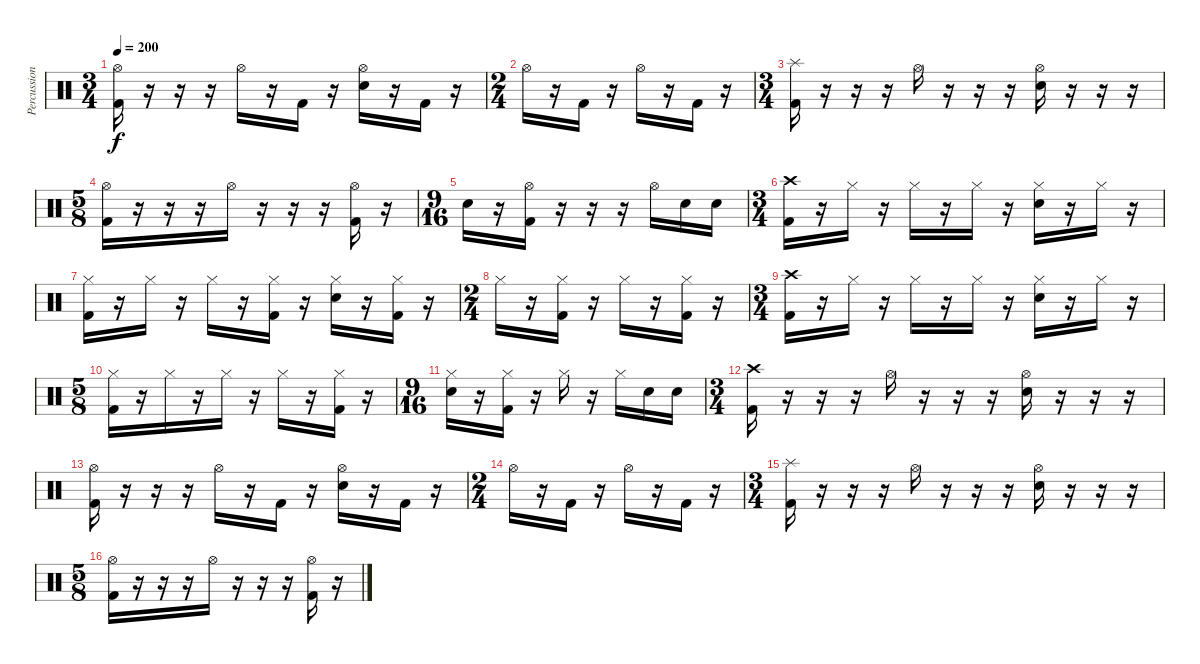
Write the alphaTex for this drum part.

\track ("Percussion" "Percussion") {instrument percussion}
\staff {score}
\articulation defaults
\ts (3 4)
\tempo 200
\clef neutral
\ks c
("Hi-Hat (open)" "Kick (hit) 2").16{dy f} r.16 r.16 r.16 "Hi-Hat (open)".16 r.16 "Kick (hit) 2".16 r.16 ("Hi-Hat (open)" "Electric Snare (hit)").16 r.16 "Kick (hit) 2".16 r.16 |
\ts (2 4)
"Hi-Hat (open)".16 r.16 "Kick (hit) 2".16 r.16 "Hi-Hat (open)".16 r.16 "Kick (hit) 2".16 r.16 |
\ts (3 4)
("Splash (hit)" "Kick (hit) 2").16 r.16 r.16 r.16 "Hi-Hat (open)".16 r.16 r.16 r.16 ("Hi-Hat (open)" "Electric Snare (hit)").16 r.16 r.16 r.16 |
\ts (5 8)
("Hi-Hat (open)" "Kick (hit) 2").16 r.16 r.16 r.16 "Hi-Hat (open)".16 r.16 r.16 r.16 ("Hi-Hat (open)" "Kick (hit) 2").16 r.16 |
\ts (9 16)
"Electric Snare (hit)".16 r.16 ("Hi-Hat (open)" "Kick (hit) 2").16 r.16 r.16 r.16 "Hi-Hat (open)".16 "Electric Snare (hit)".16 "Electric Snare (hit)".16 |
\ts (3 4)
("Crash high (hit)" "Kick (hit) 2").16 r.16 "Hi-Hat (closed)".16 r.16 "Hi-Hat (closed)".16 r.16 "Hi-Hat (closed)".16 r.16 ("Hi-Hat (closed)" "Electric Snare (hit)").16 r.16 "Hi-Hat (closed)".16 r.16 |
("Hi-Hat (closed)" "Kick (hit) 2").16 r.16 "Hi-Hat (closed)".16 r.16 "Hi-Hat (closed)".16 r.16 ("Hi-Hat (closed)" "Kick (hit) 2").16 r.16 ("Hi-Hat (closed)" "Electric Snare (hit)").16 r.16 ("Hi-Hat (closed)" "Kick (hit) 2").16 r.16 |
\ts (2 4)
"Hi-Hat (closed)".16 r.16 ("Hi-Hat (closed)" "Kick (hit) 2").16 r.16 "Hi-Hat (closed)".16 r.16 ("Hi-Hat (closed)" "Kick (hit) 2").16 r.16 |
\ts (3 4)
("Crash high (hit)" "Kick (hit) 2").16 r.16 "Hi-Hat (closed)".16 r.16 "Hi-Hat (closed)".16 r.16 "Hi-Hat (closed)".16 r.16 ("Hi-Hat (closed)" "Electric Snare (hit)").16 r.16 "Hi-Hat (closed)".16 r.16 |
\ts (5 8)
("Hi-Hat (closed)" "Kick (hit) 2").16 r.16 "Hi-Hat (closed)".16 r.16 "Hi-Hat (closed)".16 r.16 "Hi-Hat (closed)".16 r.16 ("Hi-Hat (closed)" "Kick (hit) 2").16 r.16 |
\ts (9 16)
("Hi-Hat (closed)" "Electric Snare (hit)").16 r.16 ("Hi-Hat (closed)" "Kick (hit) 2").16 r.16 "Hi-Hat (closed)".16 r.16 "Hi-Hat (closed)".16 "Electric Snare (hit)".16 "Electric Snare (hit)".16 |
\ts (3 4)
("Crash high (hit)" "Kick (hit) 2").16 r.16 r.16 r.16 "Hi-Hat (open)".16 r.16 r.16 r.16 ("Hi-Hat (open)" "Electric Snare (hit)").16 r.16 r.16 r.16 |
("Hi-Hat (open)" "Kick (hit) 2").16 r.16 r.16 r.16 "Hi-Hat (open)".16 r.16 "Kick (hit) 2".16 r.16 ("Hi-Hat (open)" "Electric Snare (hit)").16 r.16 "Kick (hit) 2".16 r.16 |
\ts (2 4)
"Hi-Hat (open)".16 r.16 "Kick (hit) 2".16 r.16 "Hi-Hat (open)".16 r.16 "Kick (hit) 2".16 r.16 |
\ts (3 4)
("Splash (hit)" "Kick (hit) 2").16 r.16 r.16 r.16 "Hi-Hat (open)".16 r.16 r.16 r.16 ("Hi-Hat (open)" "Electric Snare (hit)").16 r.16 r.16 r.16 |
\ts (5 8)
("Hi-Hat (open)" "Kick (hit) 2").16 r.16 r.16 r.16 "Hi-Hat (open)".16 r.16 r.16 r.16 ("Hi-Hat (open)" "Kick (hit) 2").16 r.16
